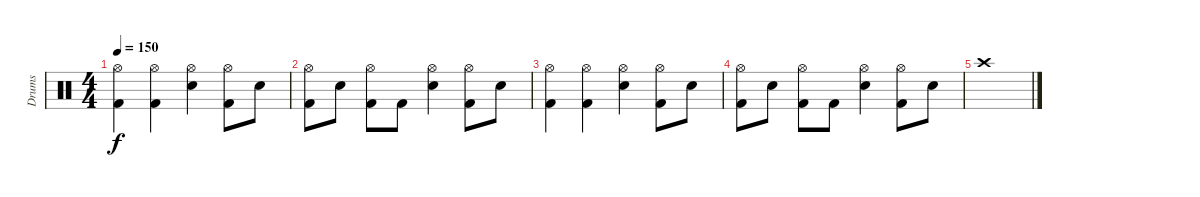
\track ("Drums" "Drums") {instrument percussion}
\staff {score}
\articulation defaults
\ts (4 4)
\tempo 150
\clef neutral
\ks c
("Hi-Hat (open)" "Kick (hit) 2").4{dy f} ("Hi-Hat (open)" "Kick (hit) 2").4 ("Hi-Hat (open)" "Snare (hit) 2").4 ("Hi-Hat (open)" "Kick (hit) 2").8 "Snare (hit) 2".8 |
("Hi-Hat (open)" "Kick (hit) 2").8 "Snare (hit) 2".8 ("Hi-Hat (open)" "Kick (hit) 2").8 "Kick (hit) 2".8 ("Hi-Hat (open)" "Snare (hit) 2").4 ("Hi-Hat (open)" "Kick (hit) 2").8 "Snare (hit) 2".8 |
("Hi-Hat (open)" "Kick (hit) 2").4 ("Hi-Hat (open)" "Kick (hit) 2").4 ("Hi-Hat (open)" "Snare (hit) 2").4 ("Hi-Hat (open)" "Kick (hit) 2").8 "Snare (hit) 2".8 |
("Hi-Hat (open)" "Kick (hit) 2").8 "Snare (hit) 2".8 ("Hi-Hat (open)" "Kick (hit) 2").8 "Kick (hit) 2".8 ("Hi-Hat (open)" "Snare (hit) 2").4 ("Hi-Hat (open)" "Kick (hit) 2").8 "Snare (hit) 2".8 |
"Crash high (hit)".1
